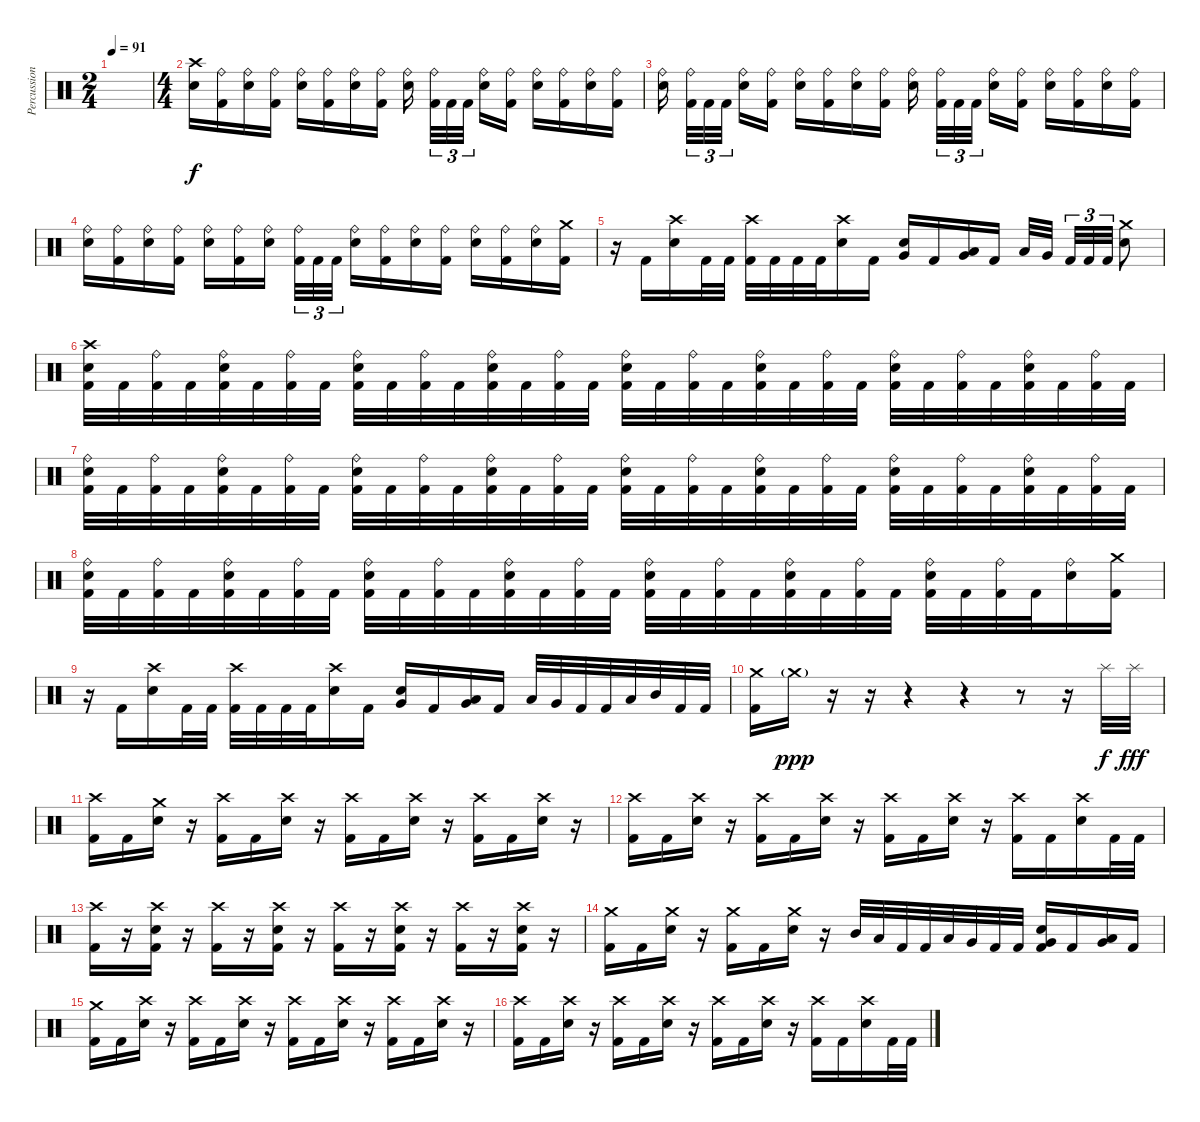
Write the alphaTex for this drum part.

\track ("Percussion" "Percussion") {instrument percussion}
\staff {score}
\articulation defaults
\ts (2 4)
\tempo 91
\clef neutral
\ks c
|
\ts (4 4)
("Crash high (hit)" "Electric Snare (hit)").16 ("Ride (bell)" "Kick (hit) 2").16 ("Ride (bell)" "Electric Snare (hit)").16 ("Ride (bell)" "Kick (hit) 2").16 ("Ride (bell)" "Electric Snare (hit)").16 ("Ride (bell)" "Kick (hit) 2").16 ("Ride (bell)" "Electric Snare (hit)").16 ("Ride (bell)" "Kick (hit) 2").16 ("Ride (bell)" "Electric Snare (hit)").16{beam splitsecondary} ("Ride (bell)" "Kick (hit) 2").32{tu (3 2)} "Kick (hit) 2".32{tu (3 2)} "Kick (hit) 2".32{tu (3 2) beam splitsecondary} ("Ride (bell)" "Electric Snare (hit)").16 ("Ride (bell)" "Kick (hit) 2").16 ("Ride (bell)" "Electric Snare (hit)").16 ("Ride (bell)" "Kick (hit) 2").16 ("Ride (bell)" "Electric Snare (hit)").16 ("Ride (bell)" "Kick (hit) 2").16 |
("Ride (bell)" "Electric Snare (hit)").16{beam splitsecondary} ("Ride (bell)" "Kick (hit) 2").32{tu (3 2)} "Kick (hit) 2".32{tu (3 2)} "Kick (hit) 2".32{tu (3 2) beam splitsecondary} ("Ride (bell)" "Electric Snare (hit)").16 ("Ride (bell)" "Kick (hit) 2").16 ("Ride (bell)" "Electric Snare (hit)").16 ("Ride (bell)" "Kick (hit) 2").16 ("Ride (bell)" "Electric Snare (hit)").16 ("Ride (bell)" "Kick (hit) 2").16 ("Ride (bell)" "Electric Snare (hit)").16{beam splitsecondary} ("Ride (bell)" "Kick (hit) 2").32{tu (3 2)} "Kick (hit) 2".32{tu (3 2)} "Kick (hit) 2".32{tu (3 2) beam splitsecondary} ("Ride (bell)" "Electric Snare (hit)").16 ("Ride (bell)" "Kick (hit) 2").16 ("Ride (bell)" "Electric Snare (hit)").16 ("Ride (bell)" "Kick (hit) 2").16 ("Ride (bell)" "Electric Snare (hit)").16 ("Ride (bell)" "Kick (hit) 2").16 |
("Ride (bell)" "Electric Snare (hit)").16 ("Ride (bell)" "Kick (hit) 2").16 ("Ride (bell)" "Electric Snare (hit)").16 ("Ride (bell)" "Kick (hit) 2").16 ("Ride (bell)" "Electric Snare (hit)").16 ("Ride (bell)" "Kick (hit) 2").16 ("Ride (bell)" "Electric Snare (hit)").16{beam splitsecondary} ("Ride (bell)" "Kick (hit) 2").32{tu (3 2)} "Kick (hit) 2".32{tu (3 2)} "Kick (hit) 2".32{tu (3 2)} ("Ride (bell)" "Electric Snare (hit)").16 ("Ride (bell)" "Kick (hit) 2").16 ("Ride (bell)" "Electric Snare (hit)").16 ("Ride (bell)" "Kick (hit) 2").16 ("Ride (bell)" "Electric Snare (hit)").16 ("Ride (bell)" "Kick (hit) 2").16 ("Ride (bell)" "Electric Snare (hit)").16 ("Crash medium (hit)" "Kick (hit) 2").16 |
r.16 "Kick (hit) 2".16 ("Crash high (hit)" "Electric Snare (hit)").16 "Kick (hit) 2".32 "Kick (hit) 2".32 ("Crash high (hit)" "Kick (hit) 2").32 "Kick (hit) 2".32 "Kick (hit) 2".32 "Kick (hit) 2".32 ("Crash high (hit)" "Electric Snare (hit)").16 "Kick (hit) 2".16 ("Electric Snare (hit)" "Very Low Tom (hit)").16 "Kick (hit) 2".16 ("Very Low Tom (hit)" "Low Floor Tom (hit)").16 "Kick (hit) 2".16 "Low Tom (hit)".32 "Very Low Tom (hit)".32{beam splitsecondary} "Kick (hit) 2".32{tu (3 2)} "Kick (hit) 2".32{tu (3 2)} "Kick (hit) 2".32{tu (3 2)} ("Crash medium (hit)" "Electric Snare (hit)").8 |
("Crash high (hit)" "Electric Snare (hit)" "Kick (hit) 2").32 "Kick (hit) 2".32 ("Ride (bell)" "Kick (hit) 2").32 "Kick (hit) 2".32 ("Ride (bell)" "Electric Snare (hit)" "Kick (hit) 2").32 "Kick (hit) 2".32 ("Ride (bell)" "Kick (hit) 2").32 "Kick (hit) 2".32 ("Ride (bell)" "Electric Snare (hit)" "Kick (hit) 2").32 "Kick (hit) 2".32 ("Ride (bell)" "Kick (hit) 2").32 "Kick (hit) 2".32 ("Ride (bell)" "Electric Snare (hit)" "Kick (hit) 2").32 "Kick (hit) 2".32 ("Ride (bell)" "Kick (hit) 2").32 "Kick (hit) 2".32 ("Ride (bell)" "Electric Snare (hit)" "Kick (hit) 2").32 "Kick (hit) 2".32 ("Ride (bell)" "Kick (hit) 2").32 "Kick (hit) 2".32 ("Ride (bell)" "Electric Snare (hit)" "Kick (hit) 2").32 "Kick (hit) 2".32 ("Ride (bell)" "Kick (hit) 2").32 "Kick (hit) 2".32 ("Ride (bell)" "Electric Snare (hit)" "Kick (hit) 2").32 "Kick (hit) 2".32 ("Ride (bell)" "Kick (hit) 2").32 "Kick (hit) 2".32 ("Ride (bell)" "Electric Snare (hit)" "Kick (hit) 2").32 "Kick (hit) 2".32 ("Ride (bell)" "Kick (hit) 2").32 "Kick (hit) 2".32 |
("Ride (bell)" "Electric Snare (hit)" "Kick (hit) 2").32 "Kick (hit) 2".32 ("Ride (bell)" "Kick (hit) 2").32 "Kick (hit) 2".32 ("Ride (bell)" "Electric Snare (hit)" "Kick (hit) 2").32 "Kick (hit) 2".32 ("Ride (bell)" "Kick (hit) 2").32 "Kick (hit) 2".32 ("Ride (bell)" "Electric Snare (hit)" "Kick (hit) 2").32 "Kick (hit) 2".32 ("Ride (bell)" "Kick (hit) 2").32 "Kick (hit) 2".32 ("Ride (bell)" "Electric Snare (hit)" "Kick (hit) 2").32 "Kick (hit) 2".32 ("Ride (bell)" "Kick (hit) 2").32 "Kick (hit) 2".32 ("Ride (bell)" "Electric Snare (hit)" "Kick (hit) 2").32 "Kick (hit) 2".32 ("Ride (bell)" "Kick (hit) 2").32 "Kick (hit) 2".32 ("Ride (bell)" "Electric Snare (hit)" "Kick (hit) 2").32 "Kick (hit) 2".32 ("Ride (bell)" "Kick (hit) 2").32 "Kick (hit) 2".32 ("Ride (bell)" "Electric Snare (hit)" "Kick (hit) 2").32 "Kick (hit) 2".32 ("Ride (bell)" "Kick (hit) 2").32 "Kick (hit) 2".32 ("Ride (bell)" "Electric Snare (hit)" "Kick (hit) 2").32 "Kick (hit) 2".32 ("Ride (bell)" "Kick (hit) 2").32 "Kick (hit) 2".32 |
("Ride (bell)" "Electric Snare (hit)" "Kick (hit) 2").32 "Kick (hit) 2".32 ("Ride (bell)" "Kick (hit) 2").32 "Kick (hit) 2".32 ("Ride (bell)" "Electric Snare (hit)" "Kick (hit) 2").32 "Kick (hit) 2".32 ("Ride (bell)" "Kick (hit) 2").32 "Kick (hit) 2".32 ("Ride (bell)" "Electric Snare (hit)" "Kick (hit) 2").32 "Kick (hit) 2".32 ("Ride (bell)" "Kick (hit) 2").32 "Kick (hit) 2".32 ("Ride (bell)" "Electric Snare (hit)" "Kick (hit) 2").32 "Kick (hit) 2".32 ("Ride (bell)" "Kick (hit) 2").32 "Kick (hit) 2".32 ("Ride (bell)" "Electric Snare (hit)" "Kick (hit) 2").32 "Kick (hit) 2".32 ("Ride (bell)" "Kick (hit) 2").32 "Kick (hit) 2".32 ("Ride (bell)" "Electric Snare (hit)" "Kick (hit) 2").32 "Kick (hit) 2".32 ("Ride (bell)" "Kick (hit) 2").32 "Kick (hit) 2".32 ("Ride (bell)" "Electric Snare (hit)" "Kick (hit) 2").32 "Kick (hit) 2".32 ("Ride (bell)" "Kick (hit) 2").32 "Kick (hit) 2".32 ("Ride (bell)" "Electric Snare (hit)").16 ("Crash medium (hit)" "Kick (hit) 2").16 |
r.16 "Kick (hit) 2".16 ("Crash high (hit)" "Electric Snare (hit)").16 "Kick (hit) 2".32 "Kick (hit) 2".32 ("Crash high (hit)" "Kick (hit) 2").32 "Kick (hit) 2".32 "Kick (hit) 2".32 "Kick (hit) 2".32 ("Crash high (hit)" "Electric Snare (hit)").16 "Kick (hit) 2".16 ("Electric Snare (hit)" "Very Low Tom (hit)").16 "Kick (hit) 2".16 ("Very Low Tom (hit)" "Low Floor Tom (hit)").16 "Kick (hit) 2".16 "Low Tom (hit)".32 "Very Low Tom (hit)".32 "Kick (hit) 2".32 "Kick (hit) 2".32 "Low Tom (hit)".32 "Mid Tom (hit)".32 "Kick (hit) 2".32 "Kick (hit) 2".32 |
("Crash medium (hit)" "Kick (hit) 2").16 "Crash medium (hit)"{g}.16{dy ppp} r.16 r.16 r.4 r.4 r.8 r.16 "Splash (hit)".32{dy f} "Splash (hit)".32{dy fff} |
("Crash high (hit)" "Kick (hit) 2").16 "Kick (hit) 2".16 ("Crash medium (hit)" "Electric Snare (hit)").16 r.16 ("Crash high (hit)" "Kick (hit) 2").16 "Kick (hit) 2".16 ("Crash high (hit)" "Electric Snare (hit)").16 r.16 ("Crash high (hit)" "Kick (hit) 2").16 "Kick (hit) 2".16 ("Crash high (hit)" "Electric Snare (hit)").16 r.16 ("Crash high (hit)" "Kick (hit) 2").16 "Kick (hit) 2".16 ("Crash high (hit)" "Electric Snare (hit)").16 r.16 |
("Crash high (hit)" "Kick (hit) 2").16 "Kick (hit) 2".16 ("Crash high (hit)" "Electric Snare (hit)").16 r.16 ("Crash high (hit)" "Kick (hit) 2").16 "Kick (hit) 2".16 ("Crash high (hit)" "Electric Snare (hit)").16 r.16 ("Crash high (hit)" "Kick (hit) 2").16 "Kick (hit) 2".16 ("Crash high (hit)" "Electric Snare (hit)").16 r.16 ("Crash high (hit)" "Kick (hit) 2").16 "Kick (hit) 2".16 ("Crash high (hit)" "Electric Snare (hit)").16 "Kick (hit) 2".32 "Kick (hit) 2".32 |
("Crash high (hit)" "Kick (hit) 2").16 r.16 ("Crash high (hit)" "Electric Snare (hit)" "Kick (hit) 2").16 r.16 ("Crash high (hit)" "Kick (hit) 2").16 r.16 ("Crash high (hit)" "Electric Snare (hit)" "Kick (hit) 2").16 r.16 ("Crash high (hit)" "Kick (hit) 2").16 r.16 ("Crash high (hit)" "Electric Snare (hit)" "Kick (hit) 2").16 r.16 ("Crash high (hit)" "Kick (hit) 2").16 r.16 ("Crash high (hit)" "Electric Snare (hit)" "Kick (hit) 2").16 r.16 |
("Crash medium (hit)" "Kick (hit) 2").16 "Kick (hit) 2".16 ("Crash medium (hit)" "Electric Snare (hit)").16 r.16 ("Crash medium (hit)" "Kick (hit) 2").16 "Kick (hit) 2".16 ("Crash medium (hit)" "Electric Snare (hit)").16 r.16 "Mid Tom (hit)".32 "Low Tom (hit)".32 "Kick (hit) 2".32 "Kick (hit) 2".32 "Low Tom (hit)".32 "Very Low Tom (hit)".32 "Kick (hit) 2".32 "Kick (hit) 2".32 ("Electric Snare (hit)" "Very Low Tom (hit)" "Kick (hit) 2").16 "Kick (hit) 2".16 ("Very Low Tom (hit)" "Low Floor Tom (hit)").16 "Kick (hit) 2".16 |
("Crash medium (hit)" "Kick (hit) 2").16 "Kick (hit) 2".16 ("Crash high (hit)" "Electric Snare (hit)").16 r.16 ("Crash high (hit)" "Kick (hit) 2").16 "Kick (hit) 2".16 ("Crash high (hit)" "Electric Snare (hit)").16 r.16 ("Crash high (hit)" "Kick (hit) 2").16 "Kick (hit) 2".16 ("Crash high (hit)" "Electric Snare (hit)").16 r.16 ("Crash high (hit)" "Kick (hit) 2").16 "Kick (hit) 2".16 ("Crash high (hit)" "Electric Snare (hit)").16 r.16 |
("Crash high (hit)" "Kick (hit) 2").16 "Kick (hit) 2".16 ("Crash high (hit)" "Electric Snare (hit)").16 r.16 ("Crash high (hit)" "Kick (hit) 2").16 "Kick (hit) 2".16 ("Crash high (hit)" "Electric Snare (hit)").16 r.16 ("Crash high (hit)" "Kick (hit) 2").16 "Kick (hit) 2".16 ("Crash high (hit)" "Electric Snare (hit)").16 r.16 ("Crash high (hit)" "Kick (hit) 2").16 "Kick (hit) 2".16 ("Crash high (hit)" "Electric Snare (hit)").16 "Kick (hit) 2".32 "Kick (hit) 2".32
